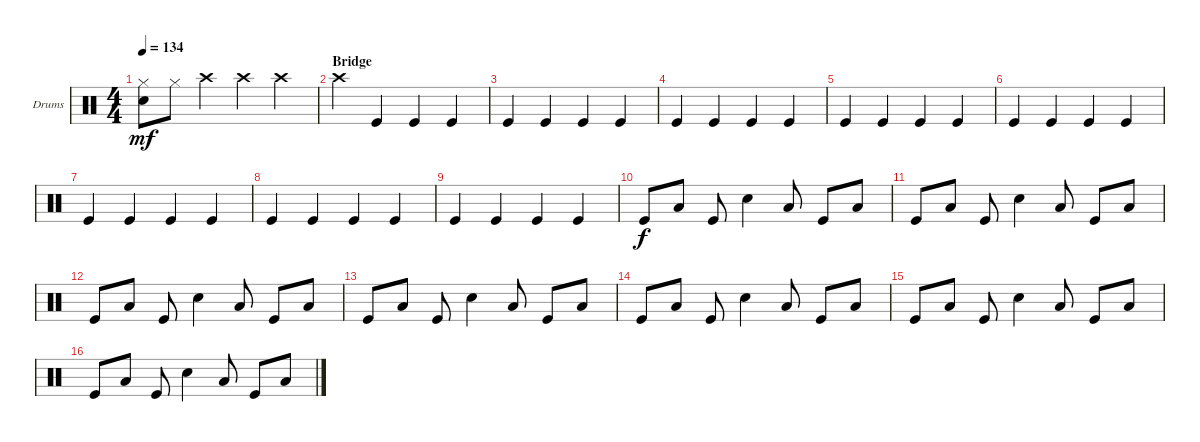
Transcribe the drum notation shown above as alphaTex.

\defaultSystemsLayout 4
\bracketExtendMode groupsimilarinstruments
\firstSystemTrackNameOrientation horizontal
\otherSystemsTrackNameOrientation horizontal
\track ("Drumkit" "Drums") {instrument percussion}
\staff {score}
\articulation defaults
\ts (4 4)
\tempo 134
\clef neutral
\ks c
("Hi-Hat (closed)" "Snare (hit) 2").8{dy mf} "Hi-Hat (closed)".8 "Crash high (hit)".4 "Crash high (hit)".4 "Crash high (hit)".4 |
\section ("" "Bridge")
"Crash high (hit)".4 "Kick (hit)".4 "Kick (hit)".4 "Kick (hit)".4 |
"Kick (hit)".4 "Kick (hit)".4 "Kick (hit)".4 "Kick (hit)".4 |
"Kick (hit)".4 "Kick (hit)".4 "Kick (hit)".4 "Kick (hit)".4 |
"Kick (hit)".4 "Kick (hit)".4 "Kick (hit)".4 "Kick (hit)".4 |
"Kick (hit)".4 "Kick (hit)".4 "Kick (hit)".4 "Kick (hit)".4 |
"Kick (hit)".4 "Kick (hit)".4 "Kick (hit)".4 "Kick (hit)".4 |
"Kick (hit)".4 "Kick (hit)".4 "Kick (hit)".4 "Kick (hit)".4 |
"Kick (hit)".4 "Kick (hit)".4 "Kick (hit)".4 "Kick (hit)".4 |
"Kick (hit)".8{dy f} "Low Tom (hit)".8 "Kick (hit)".8 "Snare (hit) 2".4 "Low Tom (hit)".8 "Kick (hit)".8 "Low Tom (hit)".8 |
"Kick (hit)".8 "Low Tom (hit)".8 "Kick (hit)".8 "Snare (hit) 2".4 "Low Tom (hit)".8 "Kick (hit)".8 "Low Tom (hit)".8 |
"Kick (hit)".8 "Low Tom (hit)".8 "Kick (hit)".8 "Snare (hit) 2".4 "Low Tom (hit)".8 "Kick (hit)".8 "Low Tom (hit)".8 |
"Kick (hit)".8 "Low Tom (hit)".8 "Kick (hit)".8 "Snare (hit) 2".4 "Low Tom (hit)".8 "Kick (hit)".8 "Low Tom (hit)".8 |
"Kick (hit)".8 "Low Tom (hit)".8 "Kick (hit)".8 "Snare (hit) 2".4 "Low Tom (hit)".8 "Kick (hit)".8 "Low Tom (hit)".8 |
"Kick (hit)".8 "Low Tom (hit)".8 "Kick (hit)".8 "Snare (hit) 2".4 "Low Tom (hit)".8 "Kick (hit)".8 "Low Tom (hit)".8 |
"Kick (hit)".8 "Low Tom (hit)".8 "Kick (hit)".8 "Snare (hit) 2".4 "Low Tom (hit)".8 "Kick (hit)".8 "Low Tom (hit)".8
